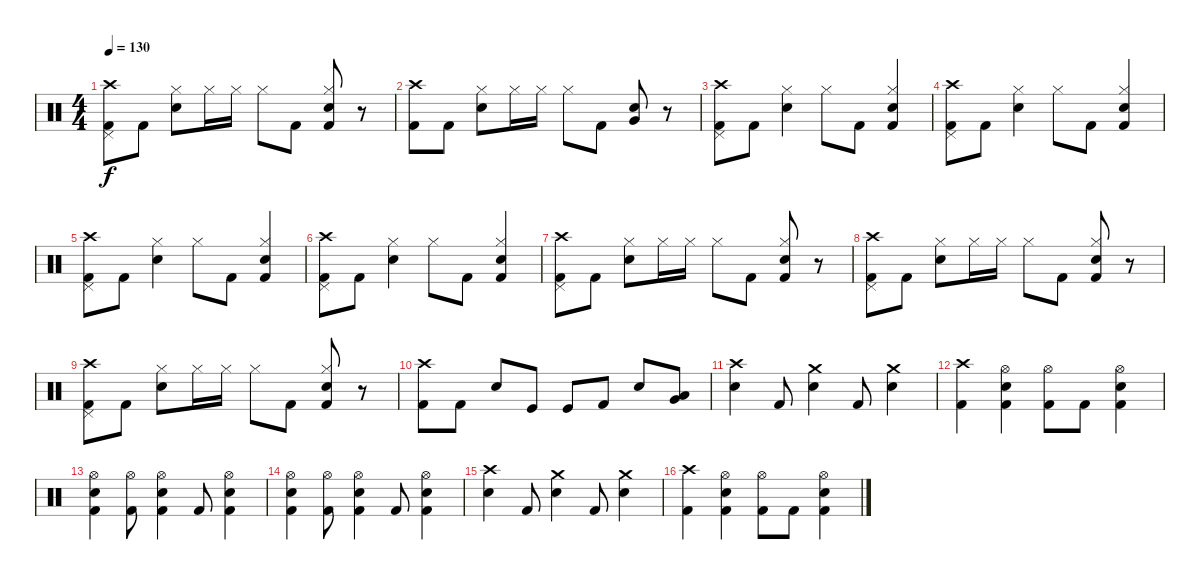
\track "" {instrument percussion}
\staff {score}
\articulation defaults
\ts (4 4)
\tempo 130
\clef neutral
\ks c
("Crash high (hit)" "Pedal Hi-Hat (hit)" "Kick (hit) 2").8{dy f} "Kick (hit) 2".8 ("Hi-Hat (closed)" "Electric Snare (hit)").8 "Hi-Hat (closed)".16 "Hi-Hat (closed)".16 "Hi-Hat (closed)".8 "Kick (hit) 2".8 ("Hi-Hat (closed)" "Electric Snare (hit)" "Kick (hit) 2").8 r.8 |
("Crash high (hit)" "Kick (hit) 2").8 "Kick (hit) 2".8 ("Hi-Hat (closed)" "Electric Snare (hit)").8 "Hi-Hat (closed)".16 "Hi-Hat (closed)".16 "Hi-Hat (closed)".8 "Kick (hit) 2".8 ("Very Low Tom (hit)" "Electric Snare (hit)").8 r.8 |
("Crash high (hit)" "Pedal Hi-Hat (hit)" "Kick (hit) 2").8 "Kick (hit) 2".8 ("Hi-Hat (closed)" "Electric Snare (hit)").4 "Hi-Hat (closed)".8 "Kick (hit) 2".8 ("Hi-Hat (closed)" "Kick (hit) 2" "Electric Snare (hit)").4 |
("Crash high (hit)" "Pedal Hi-Hat (hit)" "Kick (hit) 2").8 "Kick (hit) 2".8 ("Hi-Hat (closed)" "Electric Snare (hit)").4 "Hi-Hat (closed)".8 "Kick (hit) 2".8 ("Hi-Hat (closed)" "Kick (hit) 2" "Electric Snare (hit)").4 |
("Crash high (hit)" "Pedal Hi-Hat (hit)" "Kick (hit) 2").8 "Kick (hit) 2".8 ("Hi-Hat (closed)" "Electric Snare (hit)").4 "Hi-Hat (closed)".8 "Kick (hit) 2".8 ("Hi-Hat (closed)" "Kick (hit) 2" "Electric Snare (hit)").4 |
("Crash high (hit)" "Pedal Hi-Hat (hit)" "Kick (hit) 2").8 "Kick (hit) 2".8 ("Hi-Hat (closed)" "Electric Snare (hit)").4 "Hi-Hat (closed)".8 "Kick (hit) 2".8 ("Hi-Hat (closed)" "Kick (hit) 2" "Electric Snare (hit)").4 |
("Crash high (hit)" "Pedal Hi-Hat (hit)" "Kick (hit) 2").8 "Kick (hit) 2".8 ("Hi-Hat (closed)" "Electric Snare (hit)").8 "Hi-Hat (closed)".16 "Hi-Hat (closed)".16 "Hi-Hat (closed)".8 "Kick (hit) 2".8 ("Hi-Hat (closed)" "Electric Snare (hit)" "Kick (hit) 2").8 r.8 |
("Crash high (hit)" "Pedal Hi-Hat (hit)" "Kick (hit) 2").8 "Kick (hit) 2".8 ("Hi-Hat (closed)" "Electric Snare (hit)").8 "Hi-Hat (closed)".16 "Hi-Hat (closed)".16 "Hi-Hat (closed)".8 "Kick (hit) 2".8 ("Hi-Hat (closed)" "Electric Snare (hit)" "Kick (hit) 2").8 r.8 |
("Crash high (hit)" "Pedal Hi-Hat (hit)" "Kick (hit) 2").8 "Kick (hit) 2".8 ("Hi-Hat (closed)" "Electric Snare (hit)").8 "Hi-Hat (closed)".16 "Hi-Hat (closed)".16 "Hi-Hat (closed)".8 "Kick (hit) 2".8 ("Hi-Hat (closed)" "Electric Snare (hit)" "Kick (hit) 2").8 r.8 |
("Crash high (hit)" "Kick (hit) 2").8 "Kick (hit) 2".8 "Electric Snare (hit)".8 "Kick (hit)".8 "Kick (hit)".8 "Kick (hit) 2".8 "Electric Snare (hit)".8 ("Low Tom (hit)" "Very Low Tom (hit)").8 |
("Crash high (hit)" "Electric Snare (hit)").4 "Kick (hit) 2".8 ("Crash medium (hit)" "Electric Snare (hit)").4 "Kick (hit) 2".8 ("Crash medium (hit)" "Electric Snare (hit)").4 |
("Crash high (hit)" "Kick (hit) 2").4 ("Hi-Hat (open)" "Kick (hit) 2" "Electric Snare (hit)").4 ("Hi-Hat (open)" "Kick (hit) 2").8 "Kick (hit) 2".8 ("Hi-Hat (open)" "Kick (hit) 2" "Electric Snare (hit)").4 |
("Hi-Hat (open)" "Kick (hit) 2" "Electric Snare (hit)").4 ("Hi-Hat (open)" "Kick (hit) 2").8 ("Hi-Hat (open)" "Kick (hit) 2" "Electric Snare (hit)").4 "Kick (hit) 2".8 ("Hi-Hat (open)" "Kick (hit) 2" "Electric Snare (hit)").4 |
("Hi-Hat (open)" "Kick (hit) 2" "Electric Snare (hit)").4 ("Hi-Hat (open)" "Kick (hit) 2").8 ("Hi-Hat (open)" "Kick (hit) 2" "Electric Snare (hit)").4 "Kick (hit) 2".8 ("Hi-Hat (open)" "Kick (hit) 2" "Electric Snare (hit)").4 |
("Crash high (hit)" "Electric Snare (hit)").4 "Kick (hit) 2".8 ("Crash medium (hit)" "Electric Snare (hit)").4 "Kick (hit) 2".8 ("Crash medium (hit)" "Electric Snare (hit)").4 |
("Crash high (hit)" "Kick (hit) 2").4 ("Hi-Hat (open)" "Kick (hit) 2" "Electric Snare (hit)").4 ("Hi-Hat (open)" "Kick (hit) 2").8 "Kick (hit) 2".8 ("Hi-Hat (open)" "Kick (hit) 2" "Electric Snare (hit)").4
